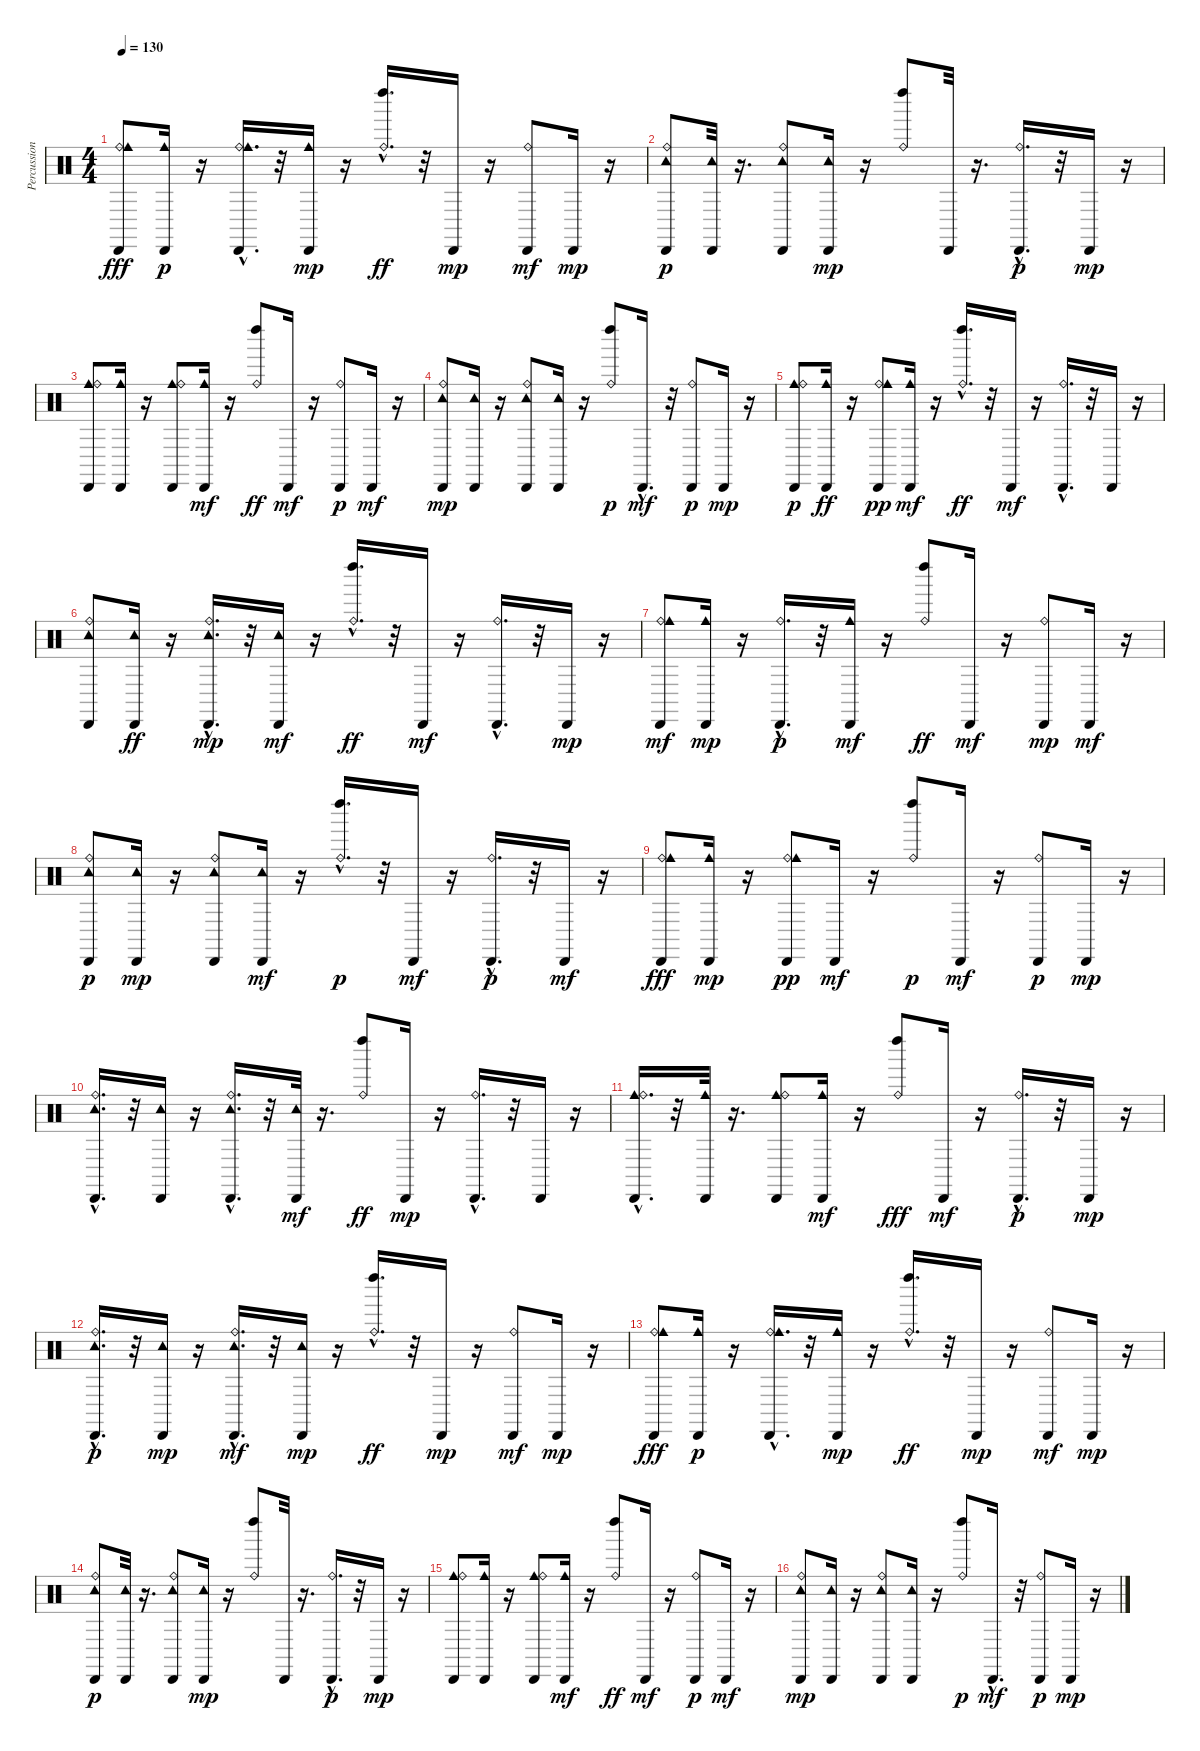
\track ("Percussion" "Percussion") {instrument percussion}
\staff {score}
\articulation defaults
\ts (4 4)
\tempo 130
\clef neutral
\ks c
("Ride (bell)" "Cowbell medium (hit)" "Cabasa (hit)").8{dy fff} ("Cabasa (hit)" "Cowbell medium (hit)").16{dy p} r.16 ("Ride (bell)"{hac} "Cabasa (hit)" "Cowbell medium (hit)").16{d} r.32 ("Cowbell medium (hit)" "Cabasa (hit)").16{dy mp} r.16 ("Ride (bell)"{hac} "Left Maraca (hit)").16{d dy ff} r.32 "Cabasa (hit)".16{dy mp} r.16 ("Ride (bell)" "Cabasa (hit)").8{dy mf} "Cabasa (hit)".16{dy mp} r.16 |
("Tambourine (hit)" "Cabasa (hit)" "Ride (bell)").8{dy p} ("Tambourine (hit)" "Cabasa (hit)").32 r.16{d} ("Cabasa (hit)" "Tambourine (hit)" "Ride (bell)").8 ("Cabasa (hit)" "Tambourine (hit)").16{dy mp} r.16 ("Left Maraca (hit)" "Ride (bell)").8 "Cabasa (hit)".32 r.16{d} ("Cabasa (hit)" "Ride (bell)"{hac}).16{d dy p} r.32 "Cabasa (hit)".16{dy mp} r.16 |
("Cowbell medium (hit)" "Ride (bell)" "Cabasa (hit)").8 ("Cabasa (hit)" "Cowbell medium (hit)").16 r.16 ("Cabasa (hit)" "Cowbell medium (hit)" "Ride (bell)").8 ("Cowbell medium (hit)" "Cabasa (hit)").16{dy mf} r.16 ("Ride (bell)" "Left Maraca (hit)").8{dy ff} "Cabasa (hit)".16{dy mf} r.16 ("Cabasa (hit)" "Ride (bell)").8{dy p} "Cabasa (hit)".16{dy mf} r.16 |
("Tambourine (hit)" "Cabasa (hit)" "Ride (bell)").8{dy mp} ("Cabasa (hit)" "Tambourine (hit)").16 r.16 ("Cabasa (hit)" "Tambourine (hit)" "Ride (bell)").8 ("Tambourine (hit)" "Cabasa (hit)").16 r.16 ("Left Maraca (hit)" "Ride (bell)").8{dy p} "Cabasa (hit)"{hac}.16{d dy mf} r.32 ("Cabasa (hit)" "Ride (bell)").8{dy p} "Cabasa (hit)".16{dy mp} r.16 |
("Cowbell medium (hit)" "Cabasa (hit)" "Ride (bell)").8{dy p} ("Cabasa (hit)" "Cowbell medium (hit)").16{dy ff} r.16 ("Cabasa (hit)" "Ride (bell)" "Cowbell medium (hit)").8{dy pp} ("Cowbell medium (hit)" "Cabasa (hit)").16{dy mf} r.16 ("Ride (bell)"{hac} "Left Maraca (hit)").16{d dy ff} r.32 "Cabasa (hit)".16{dy mf} r.16 ("Ride (bell)"{hac} "Cabasa (hit)").16{d} r.32 "Cabasa (hit)".16 r.16 |
("Ride (bell)" "Tambourine (hit)" "Cabasa (hit)").8 ("Cabasa (hit)" "Tambourine (hit)").16{dy ff} r.16 ("Cabasa (hit)" "Tambourine (hit)" "Ride (bell)"{hac}).16{d dy mp} r.32 ("Tambourine (hit)" "Cabasa (hit)").16{dy mf} r.16 ("Ride (bell)"{hac} "Left Maraca (hit)").16{d dy ff} r.32 "Cabasa (hit)".16{dy mf} r.16 ("Ride (bell)"{hac} "Cabasa (hit)").16{d} r.32 "Cabasa (hit)".16{dy mp} r.16 |
("Ride (bell)" "Cowbell medium (hit)" "Cabasa (hit)").8{dy mf} ("Cowbell medium (hit)" "Cabasa (hit)").16{dy mp} r.16 ("Cabasa (hit)" "Ride (bell)"{hac}).16{d dy p} r.32 ("Cowbell medium (hit)" "Cabasa (hit)").16{dy mf} r.16 ("Ride (bell)" "Left Maraca (hit)").8{dy ff} "Cabasa (hit)".16{dy mf} r.16 ("Cabasa (hit)" "Ride (bell)").8{dy mp} "Cabasa (hit)".16{dy mf} r.16 |
("Tambourine (hit)" "Ride (bell)" "Cabasa (hit)").8{dy p} ("Tambourine (hit)" "Cabasa (hit)").16{dy mp} r.16 ("Cabasa (hit)" "Tambourine (hit)" "Ride (bell)").8 ("Tambourine (hit)" "Cabasa (hit)").16{dy mf} r.16 ("Left Maraca (hit)" "Ride (bell)"{hac}).16{d dy p} r.32 "Cabasa (hit)".16{dy mf} r.16 ("Cabasa (hit)" "Ride (bell)"{hac}).16{d dy p} r.32 "Cabasa (hit)".16{dy mf} r.16 |
("Ride (bell)" "Cabasa (hit)" "Cowbell medium (hit)").8{dy fff} ("Cowbell medium (hit)" "Cabasa (hit)").16{dy mp} r.16 ("Ride (bell)" "Cabasa (hit)" "Cowbell medium (hit)").8{dy pp} "Cabasa (hit)".16{dy mf} r.16 ("Left Maraca (hit)" "Ride (bell)").8{dy p} "Cabasa (hit)".16{dy mf} r.16 ("Cabasa (hit)" "Ride (bell)").8{dy p} "Cabasa (hit)".16{dy mp} r.16 |
("Tambourine (hit)" "Cabasa (hit)" "Ride (bell)"{hac}).16{d} r.32 ("Tambourine (hit)" "Cabasa (hit)").16 r.16 ("Tambourine (hit)" "Cabasa (hit)" "Ride (bell)"{hac}).16{d} r.32 ("Tambourine (hit)" "Cabasa (hit)").32{dy mf} r.16{d} ("Ride (bell)" "Left Maraca (hit)").8{dy ff} "Cabasa (hit)".16{dy mp} r.16 ("Ride (bell)"{hac} "Cabasa (hit)").16{d} r.32 "Cabasa (hit)".16 r.16 |
("Cowbell medium (hit)" "Cabasa (hit)" "Ride (bell)"{hac}).16{d} r.32 ("Cowbell medium (hit)" "Cabasa (hit)").32 r.16{d} ("Cowbell medium (hit)" "Cabasa (hit)" "Ride (bell)").8 ("Cowbell medium (hit)" "Cabasa (hit)").16{dy mf} r.16 ("Ride (bell)" "Left Maraca (hit)").8{dy fff} "Cabasa (hit)".16{dy mf} r.16 ("Cabasa (hit)" "Ride (bell)"{hac}).16{d dy p} r.32 "Cabasa (hit)".16{dy mp} r.16 |
("Tambourine (hit)" "Cabasa (hit)" "Ride (bell)"{hac}).16{d dy p} r.32 ("Tambourine (hit)" "Cabasa (hit)").16{dy mp} r.16 ("Ride (bell)"{hac} "Tambourine (hit)" "Cabasa (hit)").16{d dy mf} r.32 ("Tambourine (hit)" "Cabasa (hit)").16{dy mp} r.16 ("Ride (bell)"{hac} "Left Maraca (hit)").16{d dy ff} r.32 "Cabasa (hit)".16{dy mp} r.16 ("Ride (bell)" "Cabasa (hit)").8{dy mf} "Cabasa (hit)".16{dy mp} r.16 |
("Ride (bell)" "Cowbell medium (hit)" "Cabasa (hit)").8{dy fff} ("Cabasa (hit)" "Cowbell medium (hit)").16{dy p} r.16 ("Ride (bell)"{hac} "Cabasa (hit)" "Cowbell medium (hit)").16{d} r.32 ("Cowbell medium (hit)" "Cabasa (hit)").16{dy mp} r.16 ("Ride (bell)"{hac} "Left Maraca (hit)").16{d dy ff} r.32 "Cabasa (hit)".16{dy mp} r.16 ("Ride (bell)" "Cabasa (hit)").8{dy mf} "Cabasa (hit)".16{dy mp} r.16 |
("Tambourine (hit)" "Cabasa (hit)" "Ride (bell)").8{dy p} ("Tambourine (hit)" "Cabasa (hit)").32 r.16{d} ("Cabasa (hit)" "Tambourine (hit)" "Ride (bell)").8 ("Cabasa (hit)" "Tambourine (hit)").16{dy mp} r.16 ("Left Maraca (hit)" "Ride (bell)").8 "Cabasa (hit)".32 r.16{d} ("Cabasa (hit)" "Ride (bell)"{hac}).16{d dy p} r.32 "Cabasa (hit)".16{dy mp} r.16 |
("Cowbell medium (hit)" "Ride (bell)" "Cabasa (hit)").8 ("Cabasa (hit)" "Cowbell medium (hit)").16 r.16 ("Cabasa (hit)" "Cowbell medium (hit)" "Ride (bell)").8 ("Cowbell medium (hit)" "Cabasa (hit)").16{dy mf} r.16 ("Ride (bell)" "Left Maraca (hit)").8{dy ff} "Cabasa (hit)".16{dy mf} r.16 ("Cabasa (hit)" "Ride (bell)").8{dy p} "Cabasa (hit)".16{dy mf} r.16 |
("Tambourine (hit)" "Cabasa (hit)" "Ride (bell)").8{dy mp} ("Cabasa (hit)" "Tambourine (hit)").16 r.16 ("Cabasa (hit)" "Tambourine (hit)" "Ride (bell)").8 ("Tambourine (hit)" "Cabasa (hit)").16 r.16 ("Left Maraca (hit)" "Ride (bell)").8{dy p} "Cabasa (hit)"{hac}.16{d dy mf} r.32 ("Cabasa (hit)" "Ride (bell)").8{dy p} "Cabasa (hit)".16{dy mp} r.16
